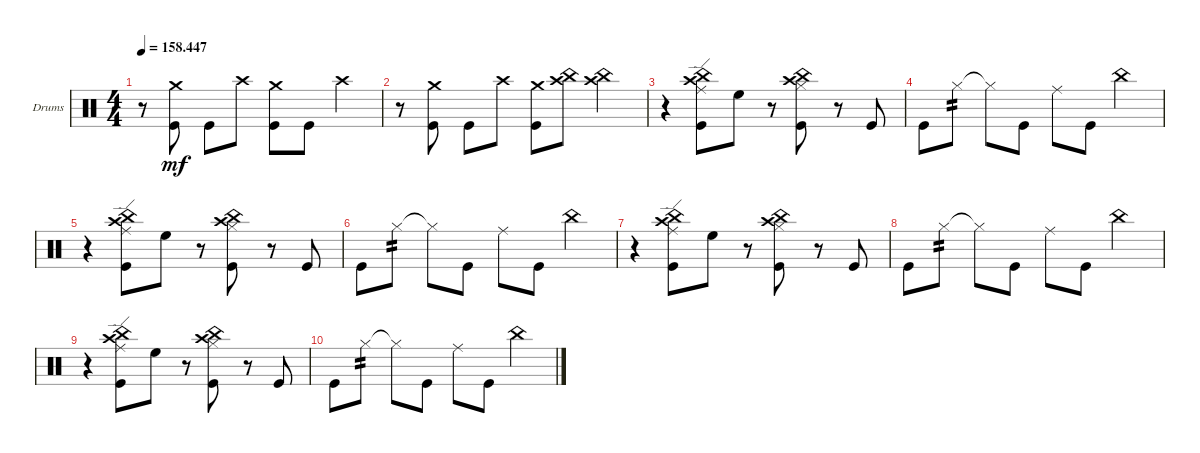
\defaultSystemsLayout 4
\bracketExtendMode groupsimilarinstruments
\firstSystemTrackNameOrientation horizontal
\otherSystemsTrackNameOrientation horizontal
\track ("Drumkit" "Drums") {instrument percussion}
\staff {score}
\articulation defaults
\ts (4 4)
\tempo
158.447
\accidentals auto
\clef neutral
\ottava regular
\simile none
\ks c
r.8{dy mf} ("Kick (hit)" "Crash medium (hit)").8 "Kick (hit)".8 "Crash high (hit)".8 ("Kick (hit)" "Crash medium (hit)").8 "Kick (hit)".8 "Crash high (hit)".4 |
r.8 ("Kick (hit)" "Crash medium (hit)").8 "Kick (hit)".8 "Crash high (hit)".8 ("Kick (hit)" "Crash medium (hit)").8 ("Crash high (hit)" "China (hit)").8 ("Crash high (hit)" "China (hit)").4 |
r.4 ("Kick (hit)" "Ride (edge)" "Crash high (hit)" "China (hit)").8 "High Floor Tom (hit)".8 r.8 ("Kick (hit)" "Crash high (hit)" "China (hit)" "Hi-Hat (closed)").8 r.8 "Kick (hit)".8 |
"Kick (hit)".8 "Hi-Hat (closed)".8{tp 2} "Hi-Hat (closed)"{t}.8 "Kick (hit)".8 "Ride (middle)".8 "Kick (hit)".8 "China (hit)".4 |
r.4 ("Kick (hit)" "Ride (edge)" "Crash high (hit)" "China (hit)").8 "High Floor Tom (hit)".8 r.8 ("Kick (hit)" "Crash high (hit)" "China (hit)" "Hi-Hat (closed)").8 r.8 "Kick (hit)".8 |
"Kick (hit)".8 "Hi-Hat (closed)".8{tp 2} "Hi-Hat (closed)"{t}.8 "Kick (hit)".8 "Ride (middle)".8 "Kick (hit)".8 "China (hit)".4 |
r.4 ("Kick (hit)" "Ride (edge)" "Crash high (hit)" "China (hit)").8 "High Floor Tom (hit)".8 r.8 ("Kick (hit)" "Crash high (hit)" "China (hit)" "Hi-Hat (closed)").8 r.8 "Kick (hit)".8 |
"Kick (hit)".8 "Hi-Hat (closed)".8{tp 2} "Hi-Hat (closed)"{t}.8 "Kick (hit)".8 "Ride (middle)".8 "Kick (hit)".8 "China (hit)".4 |
r.4 ("Kick (hit)" "Ride (edge)" "Crash high (hit)" "China (hit)").8 "High Floor Tom (hit)".8 r.8 ("Kick (hit)" "Crash high (hit)" "China (hit)" "Hi-Hat (closed)").8 r.8 "Kick (hit)".8 |
"Kick (hit)".8 "Hi-Hat (closed)".8{tp 2} "Hi-Hat (closed)"{t}.8 "Kick (hit)".8 "Ride (middle)".8 "Kick (hit)".8 "China (hit)".4
